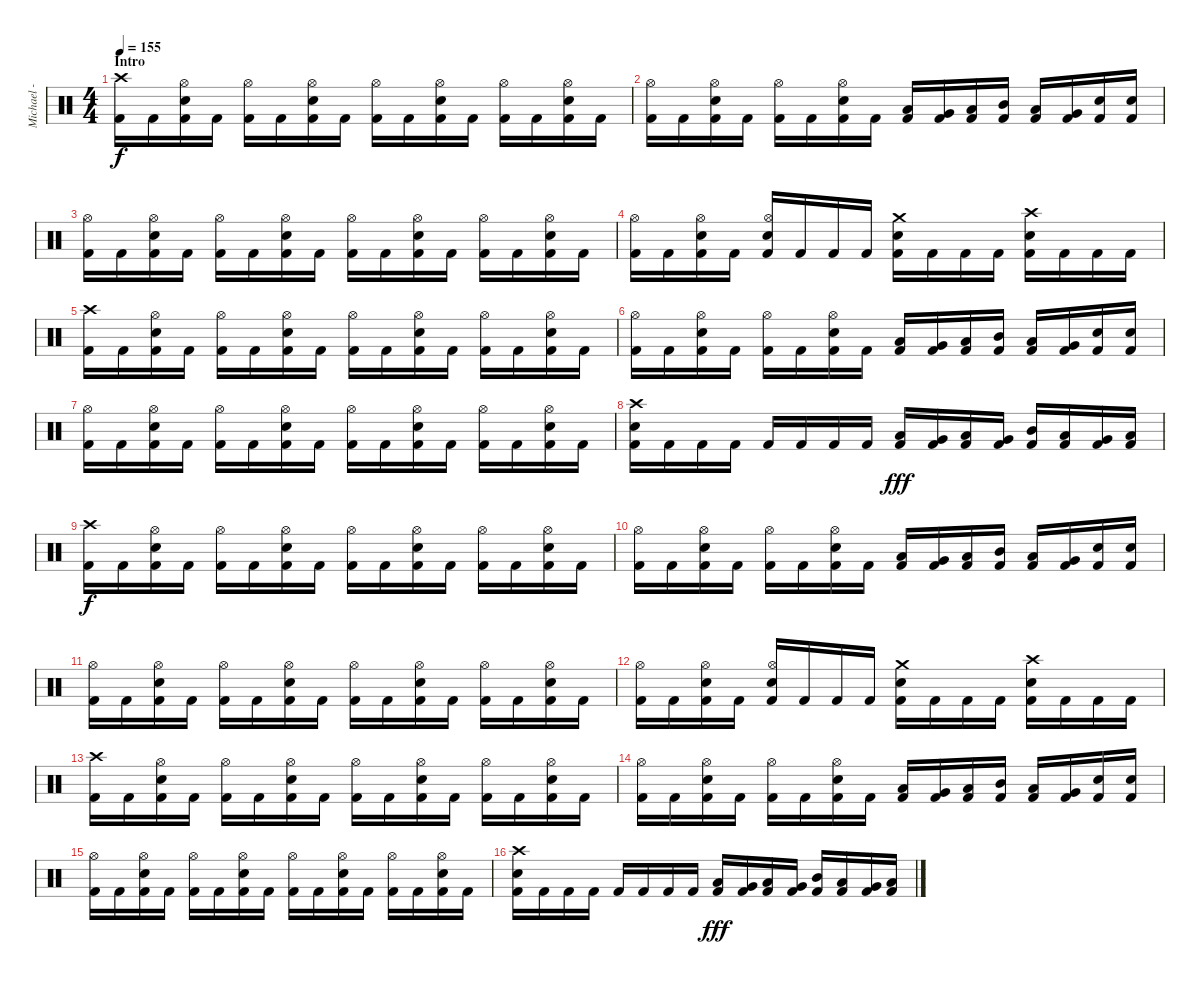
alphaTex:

\track ("Michael - Drums" "Michael - ") {instrument percussion}
\staff {score}
\articulation defaults
\ts (4 4)
\section ("" "Intro")
\tempo 155
\clef neutral
\ks c
("Crash high (hit)" "Kick (hit) 2").16{dy f} "Kick (hit) 2".16 ("Hi-Hat (open)" "Electric Snare (hit)" "Kick (hit) 2").16 "Kick (hit) 2".16 ("Hi-Hat (open)" "Kick (hit) 2").16 "Kick (hit) 2".16 ("Hi-Hat (open)" "Electric Snare (hit)" "Kick (hit) 2").16 "Kick (hit) 2".16 ("Hi-Hat (open)" "Kick (hit) 2").16 "Kick (hit) 2".16 ("Hi-Hat (open)" "Electric Snare (hit)" "Kick (hit) 2").16 "Kick (hit) 2".16 ("Hi-Hat (open)" "Kick (hit) 2").16 "Kick (hit) 2".16 ("Hi-Hat (open)" "Electric Snare (hit)" "Kick (hit) 2").16 "Kick (hit) 2".16 |
("Hi-Hat (open)" "Kick (hit) 2").16 "Kick (hit) 2".16 ("Hi-Hat (open)" "Electric Snare (hit)" "Kick (hit) 2").16 "Kick (hit) 2".16 ("Hi-Hat (open)" "Kick (hit) 2").16 "Kick (hit) 2".16 ("Hi-Hat (open)" "Electric Snare (hit)" "Kick (hit) 2").16 "Kick (hit) 2".16 ("Low Floor Tom (hit)" "Kick (hit) 2").16 ("Very Low Tom (hit)" "Kick (hit) 2").16 ("Low Tom (hit)" "Kick (hit) 2").16 ("Mid Tom (hit)" "Kick (hit) 2").16 ("Low Tom (hit)" "Kick (hit) 2").16 ("Very Low Tom (hit)" "Kick (hit) 2").16 ("Electric Snare (hit)" "Kick (hit) 2").16 ("Electric Snare (hit)" "Kick (hit) 2").16 |
("Hi-Hat (open)" "Kick (hit) 2").16 "Kick (hit) 2".16 ("Hi-Hat (open)" "Electric Snare (hit)" "Kick (hit) 2").16 "Kick (hit) 2".16 ("Hi-Hat (open)" "Kick (hit) 2").16 "Kick (hit) 2".16 ("Hi-Hat (open)" "Electric Snare (hit)" "Kick (hit) 2").16 "Kick (hit) 2".16 ("Hi-Hat (open)" "Kick (hit) 2").16 "Kick (hit) 2".16 ("Hi-Hat (open)" "Electric Snare (hit)" "Kick (hit) 2").16 "Kick (hit) 2".16 ("Hi-Hat (open)" "Kick (hit) 2").16 "Kick (hit) 2".16 ("Hi-Hat (open)" "Electric Snare (hit)" "Kick (hit) 2").16 "Kick (hit) 2".16 |
("Hi-Hat (open)" "Kick (hit) 2").16 "Kick (hit) 2".16 ("Hi-Hat (open)" "Electric Snare (hit)" "Kick (hit) 2").16 "Kick (hit) 2".16 ("Hi-Hat (open)" "Electric Snare (hit)" "Kick (hit) 2").16 "Kick (hit) 2".16 "Kick (hit) 2".16 "Kick (hit) 2".16 ("Crash medium (hit)" "Electric Snare (hit)" "Kick (hit) 2").16 "Kick (hit) 2".16 "Kick (hit) 2".16 "Kick (hit) 2".16 ("Crash high (hit)" "Electric Snare (hit)" "Kick (hit) 2").16 "Kick (hit) 2".16 "Kick (hit) 2".16 "Kick (hit) 2".16 |
("Crash high (hit)" "Kick (hit) 2").16 "Kick (hit) 2".16 ("Hi-Hat (open)" "Electric Snare (hit)" "Kick (hit) 2").16 "Kick (hit) 2".16 ("Hi-Hat (open)" "Kick (hit) 2").16 "Kick (hit) 2".16 ("Hi-Hat (open)" "Electric Snare (hit)" "Kick (hit) 2").16 "Kick (hit) 2".16 ("Hi-Hat (open)" "Kick (hit) 2").16 "Kick (hit) 2".16 ("Hi-Hat (open)" "Electric Snare (hit)" "Kick (hit) 2").16 "Kick (hit) 2".16 ("Hi-Hat (open)" "Kick (hit) 2").16 "Kick (hit) 2".16 ("Hi-Hat (open)" "Electric Snare (hit)" "Kick (hit) 2").16 "Kick (hit) 2".16 |
("Hi-Hat (open)" "Kick (hit) 2").16 "Kick (hit) 2".16 ("Hi-Hat (open)" "Electric Snare (hit)" "Kick (hit) 2").16 "Kick (hit) 2".16 ("Hi-Hat (open)" "Kick (hit) 2").16 "Kick (hit) 2".16 ("Hi-Hat (open)" "Electric Snare (hit)" "Kick (hit) 2").16 "Kick (hit) 2".16 ("Low Floor Tom (hit)" "Kick (hit) 2").16 ("Very Low Tom (hit)" "Kick (hit) 2").16 ("Low Tom (hit)" "Kick (hit) 2").16 ("Mid Tom (hit)" "Kick (hit) 2").16 ("Low Tom (hit)" "Kick (hit) 2").16 ("Very Low Tom (hit)" "Kick (hit) 2").16 ("Electric Snare (hit)" "Kick (hit) 2").16 ("Electric Snare (hit)" "Kick (hit) 2").16 |
("Hi-Hat (open)" "Kick (hit) 2").16 "Kick (hit) 2".16 ("Hi-Hat (open)" "Electric Snare (hit)" "Kick (hit) 2").16 "Kick (hit) 2".16 ("Hi-Hat (open)" "Kick (hit) 2").16 "Kick (hit) 2".16 ("Hi-Hat (open)" "Electric Snare (hit)" "Kick (hit) 2").16 "Kick (hit) 2".16 ("Hi-Hat (open)" "Kick (hit) 2").16 "Kick (hit) 2".16 ("Hi-Hat (open)" "Electric Snare (hit)" "Kick (hit) 2").16 "Kick (hit) 2".16 ("Hi-Hat (open)" "Kick (hit) 2").16 "Kick (hit) 2".16 ("Hi-Hat (open)" "Electric Snare (hit)" "Kick (hit) 2").16 "Kick (hit) 2".16 |
("Crash high (hit)" "Electric Snare (hit)" "Kick (hit) 2").16 "Kick (hit) 2".16 "Kick (hit) 2".16 "Kick (hit) 2".16 "Kick (hit) 2".16 "Kick (hit) 2".16 "Kick (hit) 2".16 "Kick (hit) 2".16 ("Low Tom (hit)" "Kick (hit) 2").16{dy fff} ("Very Low Tom (hit)" "Kick (hit) 2").16 ("Low Floor Tom (hit)" "Kick (hit) 2").16 ("Very Low Tom (hit)" "Kick (hit) 2").16 ("Mid Tom (hit)" "Kick (hit) 2").16 ("Low Tom (hit)" "Kick (hit) 2").16 ("Very Low Tom (hit)" "Kick (hit) 2").16 ("Low Floor Tom (hit)" "Kick (hit) 2").16 |
("Crash high (hit)" "Kick (hit) 2").16{dy f} "Kick (hit) 2".16 ("Hi-Hat (open)" "Electric Snare (hit)" "Kick (hit) 2").16 "Kick (hit) 2".16 ("Hi-Hat (open)" "Kick (hit) 2").16 "Kick (hit) 2".16 ("Hi-Hat (open)" "Electric Snare (hit)" "Kick (hit) 2").16 "Kick (hit) 2".16 ("Hi-Hat (open)" "Kick (hit) 2").16 "Kick (hit) 2".16 ("Hi-Hat (open)" "Electric Snare (hit)" "Kick (hit) 2").16 "Kick (hit) 2".16 ("Hi-Hat (open)" "Kick (hit) 2").16 "Kick (hit) 2".16 ("Hi-Hat (open)" "Electric Snare (hit)" "Kick (hit) 2").16 "Kick (hit) 2".16 |
("Hi-Hat (open)" "Kick (hit) 2").16 "Kick (hit) 2".16 ("Hi-Hat (open)" "Electric Snare (hit)" "Kick (hit) 2").16 "Kick (hit) 2".16 ("Hi-Hat (open)" "Kick (hit) 2").16 "Kick (hit) 2".16 ("Hi-Hat (open)" "Electric Snare (hit)" "Kick (hit) 2").16 "Kick (hit) 2".16 ("Low Floor Tom (hit)" "Kick (hit) 2").16 ("Very Low Tom (hit)" "Kick (hit) 2").16 ("Low Tom (hit)" "Kick (hit) 2").16 ("Mid Tom (hit)" "Kick (hit) 2").16 ("Low Tom (hit)" "Kick (hit) 2").16 ("Very Low Tom (hit)" "Kick (hit) 2").16 ("Electric Snare (hit)" "Kick (hit) 2").16 ("Electric Snare (hit)" "Kick (hit) 2").16 |
("Hi-Hat (open)" "Kick (hit) 2").16 "Kick (hit) 2".16 ("Hi-Hat (open)" "Electric Snare (hit)" "Kick (hit) 2").16 "Kick (hit) 2".16 ("Hi-Hat (open)" "Kick (hit) 2").16 "Kick (hit) 2".16 ("Hi-Hat (open)" "Electric Snare (hit)" "Kick (hit) 2").16 "Kick (hit) 2".16 ("Hi-Hat (open)" "Kick (hit) 2").16 "Kick (hit) 2".16 ("Hi-Hat (open)" "Electric Snare (hit)" "Kick (hit) 2").16 "Kick (hit) 2".16 ("Hi-Hat (open)" "Kick (hit) 2").16 "Kick (hit) 2".16 ("Hi-Hat (open)" "Electric Snare (hit)" "Kick (hit) 2").16 "Kick (hit) 2".16 |
("Hi-Hat (open)" "Kick (hit) 2").16 "Kick (hit) 2".16 ("Hi-Hat (open)" "Electric Snare (hit)" "Kick (hit) 2").16 "Kick (hit) 2".16 ("Hi-Hat (open)" "Electric Snare (hit)" "Kick (hit) 2").16 "Kick (hit) 2".16 "Kick (hit) 2".16 "Kick (hit) 2".16 ("Crash medium (hit)" "Electric Snare (hit)" "Kick (hit) 2").16 "Kick (hit) 2".16 "Kick (hit) 2".16 "Kick (hit) 2".16 ("Crash high (hit)" "Electric Snare (hit)" "Kick (hit) 2").16 "Kick (hit) 2".16 "Kick (hit) 2".16 "Kick (hit) 2".16 |
("Crash high (hit)" "Kick (hit) 2").16 "Kick (hit) 2".16 ("Hi-Hat (open)" "Electric Snare (hit)" "Kick (hit) 2").16 "Kick (hit) 2".16 ("Hi-Hat (open)" "Kick (hit) 2").16 "Kick (hit) 2".16 ("Hi-Hat (open)" "Electric Snare (hit)" "Kick (hit) 2").16 "Kick (hit) 2".16 ("Hi-Hat (open)" "Kick (hit) 2").16 "Kick (hit) 2".16 ("Hi-Hat (open)" "Electric Snare (hit)" "Kick (hit) 2").16 "Kick (hit) 2".16 ("Hi-Hat (open)" "Kick (hit) 2").16 "Kick (hit) 2".16 ("Hi-Hat (open)" "Electric Snare (hit)" "Kick (hit) 2").16 "Kick (hit) 2".16 |
("Hi-Hat (open)" "Kick (hit) 2").16 "Kick (hit) 2".16 ("Hi-Hat (open)" "Electric Snare (hit)" "Kick (hit) 2").16 "Kick (hit) 2".16 ("Hi-Hat (open)" "Kick (hit) 2").16 "Kick (hit) 2".16 ("Hi-Hat (open)" "Electric Snare (hit)" "Kick (hit) 2").16 "Kick (hit) 2".16 ("Low Floor Tom (hit)" "Kick (hit) 2").16 ("Very Low Tom (hit)" "Kick (hit) 2").16 ("Low Tom (hit)" "Kick (hit) 2").16 ("Mid Tom (hit)" "Kick (hit) 2").16 ("Low Tom (hit)" "Kick (hit) 2").16 ("Very Low Tom (hit)" "Kick (hit) 2").16 ("Electric Snare (hit)" "Kick (hit) 2").16 ("Electric Snare (hit)" "Kick (hit) 2").16 |
("Hi-Hat (open)" "Kick (hit) 2").16 "Kick (hit) 2".16 ("Hi-Hat (open)" "Electric Snare (hit)" "Kick (hit) 2").16 "Kick (hit) 2".16 ("Hi-Hat (open)" "Kick (hit) 2").16 "Kick (hit) 2".16 ("Hi-Hat (open)" "Electric Snare (hit)" "Kick (hit) 2").16 "Kick (hit) 2".16 ("Hi-Hat (open)" "Kick (hit) 2").16 "Kick (hit) 2".16 ("Hi-Hat (open)" "Electric Snare (hit)" "Kick (hit) 2").16 "Kick (hit) 2".16 ("Hi-Hat (open)" "Kick (hit) 2").16 "Kick (hit) 2".16 ("Hi-Hat (open)" "Electric Snare (hit)" "Kick (hit) 2").16 "Kick (hit) 2".16 |
("Crash high (hit)" "Electric Snare (hit)" "Kick (hit) 2").16 "Kick (hit) 2".16 "Kick (hit) 2".16 "Kick (hit) 2".16 "Kick (hit) 2".16 "Kick (hit) 2".16 "Kick (hit) 2".16 "Kick (hit) 2".16 ("Low Tom (hit)" "Kick (hit) 2").16{dy fff} ("Very Low Tom (hit)" "Kick (hit) 2").16 ("Low Floor Tom (hit)" "Kick (hit) 2").16 ("Very Low Tom (hit)" "Kick (hit) 2").16 ("Mid Tom (hit)" "Kick (hit) 2").16 ("Low Tom (hit)" "Kick (hit) 2").16 ("Very Low Tom (hit)" "Kick (hit) 2").16 ("Low Floor Tom (hit)" "Kick (hit) 2").16
